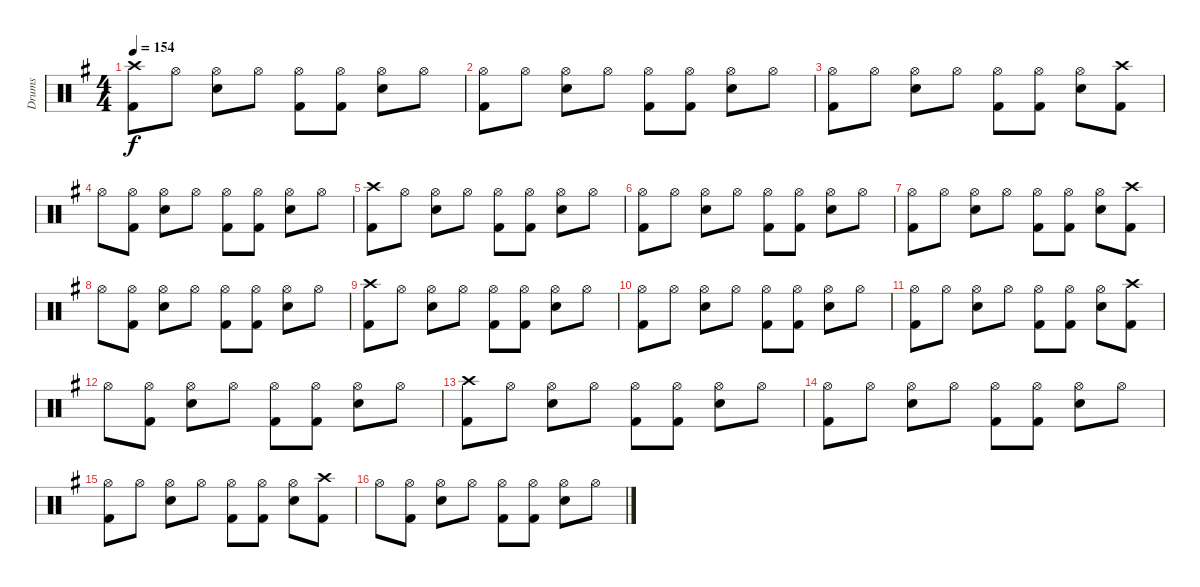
\track ("Drums" "Drums") {instrument percussion}
\staff {score}
\articulation defaults
\ts (4 4)
\tempo 154
\clef neutral
\ks g
("Crash high (hit)" "Kick (hit) 2").8{dy f} "Hi-Hat (open)".8 ("Hi-Hat (open)" "Electric Snare (hit)").8 "Hi-Hat (open)".8 ("Hi-Hat (open)" "Kick (hit) 2").8 ("Kick (hit) 2" "Hi-Hat (open)").8 ("Hi-Hat (open)" "Electric Snare (hit)").8 "Hi-Hat (open)".8 |
("Hi-Hat (open)" "Kick (hit) 2").8 "Hi-Hat (open)".8 ("Hi-Hat (open)" "Electric Snare (hit)").8 "Hi-Hat (open)".8 ("Hi-Hat (open)" "Kick (hit) 2").8 ("Kick (hit) 2" "Hi-Hat (open)").8 ("Hi-Hat (open)" "Electric Snare (hit)").8 "Hi-Hat (open)".8 |
("Hi-Hat (open)" "Kick (hit) 2").8 "Hi-Hat (open)".8 ("Hi-Hat (open)" "Electric Snare (hit)").8 "Hi-Hat (open)".8 ("Hi-Hat (open)" "Kick (hit) 2").8 ("Hi-Hat (open)" "Kick (hit) 2").8 ("Hi-Hat (open)" "Electric Snare (hit)").8 ("Crash high (hit)" "Kick (hit) 2").8 |
"Hi-Hat (open)".8 ("Kick (hit) 2" "Hi-Hat (open)").8 ("Hi-Hat (open)" "Electric Snare (hit)").8 "Hi-Hat (open)".8 ("Hi-Hat (open)" "Kick (hit) 2").8 ("Hi-Hat (open)" "Kick (hit) 2").8 ("Hi-Hat (open)" "Electric Snare (hit)").8 "Hi-Hat (open)".8 |
("Crash high (hit)" "Kick (hit) 2").8 "Hi-Hat (open)".8 ("Hi-Hat (open)" "Electric Snare (hit)").8 "Hi-Hat (open)".8 ("Hi-Hat (open)" "Kick (hit) 2").8 ("Kick (hit) 2" "Hi-Hat (open)").8 ("Hi-Hat (open)" "Electric Snare (hit)").8 "Hi-Hat (open)".8 |
("Hi-Hat (open)" "Kick (hit) 2").8 "Hi-Hat (open)".8 ("Hi-Hat (open)" "Electric Snare (hit)").8 "Hi-Hat (open)".8 ("Hi-Hat (open)" "Kick (hit) 2").8 ("Kick (hit) 2" "Hi-Hat (open)").8 ("Hi-Hat (open)" "Electric Snare (hit)").8 "Hi-Hat (open)".8 |
("Hi-Hat (open)" "Kick (hit) 2").8 "Hi-Hat (open)".8 ("Hi-Hat (open)" "Electric Snare (hit)").8 "Hi-Hat (open)".8 ("Hi-Hat (open)" "Kick (hit) 2").8 ("Hi-Hat (open)" "Kick (hit) 2").8 ("Hi-Hat (open)" "Electric Snare (hit)").8 ("Crash high (hit)" "Kick (hit) 2").8 |
"Hi-Hat (open)".8 ("Kick (hit) 2" "Hi-Hat (open)").8 ("Hi-Hat (open)" "Electric Snare (hit)").8 "Hi-Hat (open)".8 ("Hi-Hat (open)" "Kick (hit) 2").8 ("Hi-Hat (open)" "Kick (hit) 2").8 ("Hi-Hat (open)" "Electric Snare (hit)").8 "Hi-Hat (open)".8 |
("Crash high (hit)" "Kick (hit) 2").8 "Hi-Hat (open)".8 ("Hi-Hat (open)" "Electric Snare (hit)").8 "Hi-Hat (open)".8 ("Hi-Hat (open)" "Kick (hit) 2").8 ("Kick (hit) 2" "Hi-Hat (open)").8 ("Hi-Hat (open)" "Electric Snare (hit)").8 "Hi-Hat (open)".8 |
("Hi-Hat (open)" "Kick (hit) 2").8 "Hi-Hat (open)".8 ("Hi-Hat (open)" "Electric Snare (hit)").8 "Hi-Hat (open)".8 ("Hi-Hat (open)" "Kick (hit) 2").8 ("Kick (hit) 2" "Hi-Hat (open)").8 ("Hi-Hat (open)" "Electric Snare (hit)").8 "Hi-Hat (open)".8 |
("Hi-Hat (open)" "Kick (hit) 2").8 "Hi-Hat (open)".8 ("Hi-Hat (open)" "Electric Snare (hit)").8 "Hi-Hat (open)".8 ("Hi-Hat (open)" "Kick (hit) 2").8 ("Hi-Hat (open)" "Kick (hit) 2").8 ("Hi-Hat (open)" "Electric Snare (hit)").8 ("Crash high (hit)" "Kick (hit) 2").8 |
"Hi-Hat (open)".8 ("Kick (hit) 2" "Hi-Hat (open)").8 ("Hi-Hat (open)" "Electric Snare (hit)").8 "Hi-Hat (open)".8 ("Hi-Hat (open)" "Kick (hit) 2").8 ("Hi-Hat (open)" "Kick (hit) 2").8 ("Hi-Hat (open)" "Electric Snare (hit)").8 "Hi-Hat (open)".8 |
("Crash high (hit)" "Kick (hit) 2").8 "Hi-Hat (open)".8 ("Hi-Hat (open)" "Electric Snare (hit)").8 "Hi-Hat (open)".8 ("Hi-Hat (open)" "Kick (hit) 2").8 ("Kick (hit) 2" "Hi-Hat (open)").8 ("Hi-Hat (open)" "Electric Snare (hit)").8 "Hi-Hat (open)".8 |
("Hi-Hat (open)" "Kick (hit) 2").8 "Hi-Hat (open)".8 ("Hi-Hat (open)" "Electric Snare (hit)").8 "Hi-Hat (open)".8 ("Hi-Hat (open)" "Kick (hit) 2").8 ("Kick (hit) 2" "Hi-Hat (open)").8 ("Hi-Hat (open)" "Electric Snare (hit)").8 "Hi-Hat (open)".8 |
("Hi-Hat (open)" "Kick (hit) 2").8 "Hi-Hat (open)".8 ("Hi-Hat (open)" "Electric Snare (hit)").8 "Hi-Hat (open)".8 ("Hi-Hat (open)" "Kick (hit) 2").8 ("Hi-Hat (open)" "Kick (hit) 2").8 ("Hi-Hat (open)" "Electric Snare (hit)").8 ("Crash high (hit)" "Kick (hit) 2").8 |
"Hi-Hat (open)".8 ("Kick (hit) 2" "Hi-Hat (open)").8 ("Hi-Hat (open)" "Electric Snare (hit)").8 "Hi-Hat (open)".8 ("Hi-Hat (open)" "Kick (hit) 2").8 ("Hi-Hat (open)" "Kick (hit) 2").8 ("Hi-Hat (open)" "Electric Snare (hit)").8 "Hi-Hat (open)".8
